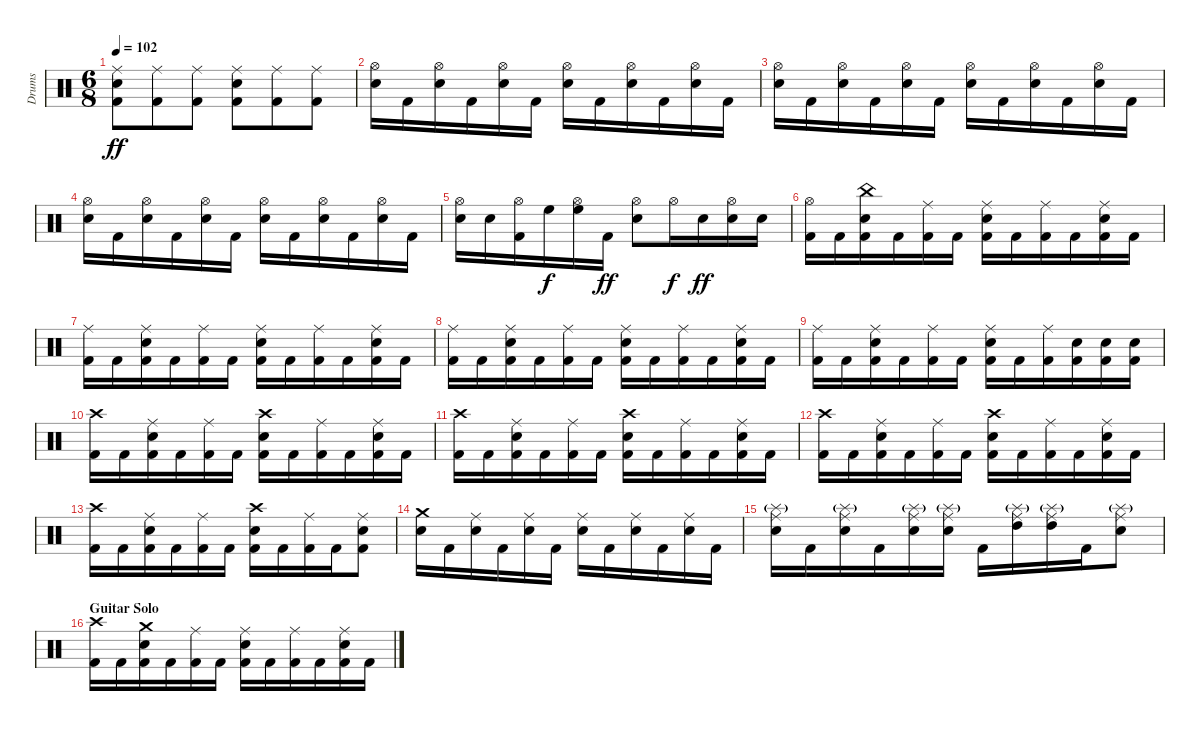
\track ("Drums" "Drums") {instrument percussion}
\staff {score}
\articulation defaults
\ts (6 8)
\tempo 102
\clef neutral
\ks c
("Ride (middle)" "Electric Snare (hit)" "Kick (hit) 2").8{dy ff} ("Ride (middle)" "Kick (hit) 2").8 ("Ride (middle)" "Kick (hit) 2").8 ("Ride (middle)" "Electric Snare (hit)" "Kick (hit) 2").8 ("Ride (middle)" "Kick (hit) 2").8 ("Ride (middle)" "Kick (hit) 2").8 |
("Hi-Hat (open)" "Electric Snare (hit)").16 "Kick (hit) 2".16 ("Hi-Hat (open)" "Electric Snare (hit)").16 "Kick (hit) 2".16 ("Hi-Hat (open)" "Electric Snare (hit)").16 "Kick (hit) 2".16 ("Hi-Hat (open)" "Electric Snare (hit)").16 "Kick (hit) 2".16 ("Hi-Hat (open)" "Electric Snare (hit)").16 "Kick (hit) 2".16 ("Hi-Hat (open)" "Electric Snare (hit)").16 "Kick (hit) 2".16 |
("Hi-Hat (open)" "Electric Snare (hit)").16 "Kick (hit) 2".16 ("Hi-Hat (open)" "Electric Snare (hit)").16 "Kick (hit) 2".16 ("Hi-Hat (open)" "Electric Snare (hit)").16 "Kick (hit) 2".16 ("Hi-Hat (open)" "Electric Snare (hit)").16 "Kick (hit) 2".16 ("Hi-Hat (open)" "Electric Snare (hit)").16 "Kick (hit) 2".16 ("Hi-Hat (open)" "Electric Snare (hit)").16 "Kick (hit) 2".16 |
("Hi-Hat (open)" "Electric Snare (hit)").16 "Kick (hit) 2".16 ("Hi-Hat (open)" "Electric Snare (hit)").16 "Kick (hit) 2".16 ("Hi-Hat (open)" "Electric Snare (hit)").16 "Kick (hit) 2".16 ("Hi-Hat (open)" "Electric Snare (hit)").16 "Kick (hit) 2".16 ("Hi-Hat (open)" "Electric Snare (hit)").16 "Kick (hit) 2".16 ("Hi-Hat (open)" "Electric Snare (hit)").16 "Kick (hit) 2".16 |
("Hi-Hat (open)" "Electric Snare (hit)").16 "Electric Snare (hit)".16 ("Hi-Hat (open)" "Kick (hit) 2").16 "High Floor Tom (hit)".16{dy f} ("Hi-Hat (open)" "High Floor Tom (hit)").16 "Kick (hit) 2".16{dy ff} ("Hi-Hat (open)" "Electric Snare (hit)").8 "Hi-Hat (open)".16{dy f} "Electric Snare (hit)".16{dy ff} ("Hi-Hat (open)" "Electric Snare (hit)").16 "Electric Snare (hit)".16 |
("Hi-Hat (open)" "Kick (hit) 2").16 "Kick (hit) 2".16 ("China (hit)" "Electric Snare (hit)" "Kick (hit) 2").16 "Kick (hit) 2".16 ("Ride (middle)" "Kick (hit) 2").16 "Kick (hit) 2".16 ("Ride (middle)" "Electric Snare (hit)" "Kick (hit) 2").16 "Kick (hit) 2".16 ("Ride (middle)" "Kick (hit) 2").16 "Kick (hit) 2".16 ("Ride (middle)" "Electric Snare (hit)" "Kick (hit) 2").16 "Kick (hit) 2".16 |
("Ride (middle)" "Kick (hit) 2").16 "Kick (hit) 2".16 ("Ride (middle)" "Electric Snare (hit)" "Kick (hit) 2").16 "Kick (hit) 2".16 ("Ride (middle)" "Kick (hit) 2").16 "Kick (hit) 2".16 ("Ride (middle)" "Electric Snare (hit)" "Kick (hit) 2").16 "Kick (hit) 2".16 ("Ride (middle)" "Kick (hit) 2").16 "Kick (hit) 2".16 ("Ride (middle)" "Electric Snare (hit)" "Kick (hit) 2").16 "Kick (hit) 2".16 |
("Ride (middle)" "Kick (hit) 2").16 "Kick (hit) 2".16 ("Ride (middle)" "Electric Snare (hit)" "Kick (hit) 2").16 "Kick (hit) 2".16 ("Ride (middle)" "Kick (hit) 2").16 "Kick (hit) 2".16 ("Ride (middle)" "Electric Snare (hit)" "Kick (hit) 2").16 "Kick (hit) 2".16 ("Ride (middle)" "Kick (hit) 2").16 "Kick (hit) 2".16 ("Ride (middle)" "Electric Snare (hit)" "Kick (hit) 2").16 "Kick (hit) 2".16 |
("Ride (middle)" "Kick (hit) 2").16 "Kick (hit) 2".16 ("Ride (middle)" "Electric Snare (hit)" "Kick (hit) 2").16 "Kick (hit) 2".16 ("Ride (middle)" "Kick (hit) 2").16 "Kick (hit) 2".16 ("Ride (middle)" "Electric Snare (hit)" "Kick (hit) 2").16 "Kick (hit) 2".16 ("Ride (middle)" "Kick (hit) 2").16 ("Electric Snare (hit)" "Kick (hit) 2").16 ("Electric Snare (hit)" "Kick (hit) 2").16 ("Electric Snare (hit)" "Kick (hit) 2").16 |
("Crash high (hit)" "Kick (hit) 2").16 "Kick (hit) 2".16 ("Ride (middle)" "Electric Snare (hit)" "Kick (hit) 2").16 "Kick (hit) 2".16 ("Ride (middle)" "Kick (hit) 2").16 "Kick (hit) 2".16 ("Crash high (hit)" "Electric Snare (hit)" "Kick (hit) 2").16 "Kick (hit) 2".16 ("Ride (middle)" "Kick (hit) 2").16 "Kick (hit) 2".16 ("Ride (middle)" "Electric Snare (hit)" "Kick (hit) 2").16 "Kick (hit) 2".16 |
("Crash high (hit)" "Kick (hit) 2").16 "Kick (hit) 2".16 ("Ride (middle)" "Electric Snare (hit)" "Kick (hit) 2").16 "Kick (hit) 2".16 ("Ride (middle)" "Kick (hit) 2").16 "Kick (hit) 2".16 ("Crash high (hit)" "Electric Snare (hit)" "Kick (hit) 2").16 "Kick (hit) 2".16 ("Ride (middle)" "Kick (hit) 2").16 "Kick (hit) 2".16 ("Ride (middle)" "Electric Snare (hit)" "Kick (hit) 2").16 "Kick (hit) 2".16 |
("Crash high (hit)" "Kick (hit) 2").16 "Kick (hit) 2".16 ("Ride (middle)" "Electric Snare (hit)" "Kick (hit) 2").16 "Kick (hit) 2".16 ("Ride (middle)" "Kick (hit) 2").16 "Kick (hit) 2".16 ("Crash high (hit)" "Electric Snare (hit)" "Kick (hit) 2").16 "Kick (hit) 2".16 ("Ride (middle)" "Kick (hit) 2").16 "Kick (hit) 2".16 ("Ride (middle)" "Electric Snare (hit)" "Kick (hit) 2").16 "Kick (hit) 2".16 |
("Crash high (hit)" "Kick (hit) 2").16 "Kick (hit) 2".16 ("Ride (middle)" "Electric Snare (hit)" "Kick (hit) 2").16 "Kick (hit) 2".16 ("Ride (middle)" "Kick (hit) 2").16 "Kick (hit) 2".16 ("Crash high (hit)" "Electric Snare (hit)" "Kick (hit) 2").16 "Kick (hit) 2".16 ("Ride (middle)" "Kick (hit) 2").16 "Kick (hit) 2".16 ("Ride (middle)" "Electric Snare (hit)" "Kick (hit) 2").8 |
("Crash medium (hit)" "Electric Snare (hit)").16 "Kick (hit) 2".16 ("Ride (middle)" "Electric Snare (hit)").16 "Kick (hit) 2".16 ("Ride (middle)" "Electric Snare (hit)").16 "Kick (hit) 2".16 ("Ride (middle)" "Electric Snare (hit)").16 "Kick (hit) 2".16 ("Ride (middle)" "Electric Snare (hit)").16 "Kick (hit) 2".16 ("Ride (middle)" "Electric Snare (hit)").16 "Kick (hit) 2".16 |
("Splash (hit)"{g} "Ride (middle)" "Electric Snare (hit)").16 "Kick (hit) 2".16 ("Splash (hit)"{g} "Ride (middle)" "Electric Snare (hit)").16 "Kick (hit) 2".16 ("Splash (hit)"{g} "Ride (middle)" "Electric Snare (hit)").16 ("Splash (hit)"{g} "Ride (middle)" "Electric Snare (hit)").16 "Kick (hit) 2".16 ("Splash (hit)"{g} "Ride (middle)" "High Tom (hit)").16 ("Splash (hit)"{g} "Ride (middle)" "High Tom (hit)").16 "Kick (hit) 2".16 ("Splash (hit)"{g} "Ride (middle)" "Electric Snare (hit)").8 |
\section ("" "Guitar Solo")
("Crash high (hit)" "Kick (hit) 2").16 "Kick (hit) 2".16 ("Crash medium (hit)" "Electric Snare (hit)" "Kick (hit) 2").16 "Kick (hit) 2".16 ("Ride (middle)" "Kick (hit) 2").16 "Kick (hit) 2".16 ("Ride (middle)" "Electric Snare (hit)" "Kick (hit) 2").16 "Kick (hit) 2".16 ("Ride (middle)" "Kick (hit) 2").16 "Kick (hit) 2".16 ("Ride (middle)" "Electric Snare (hit)" "Kick (hit) 2").16 "Kick (hit) 2".16
